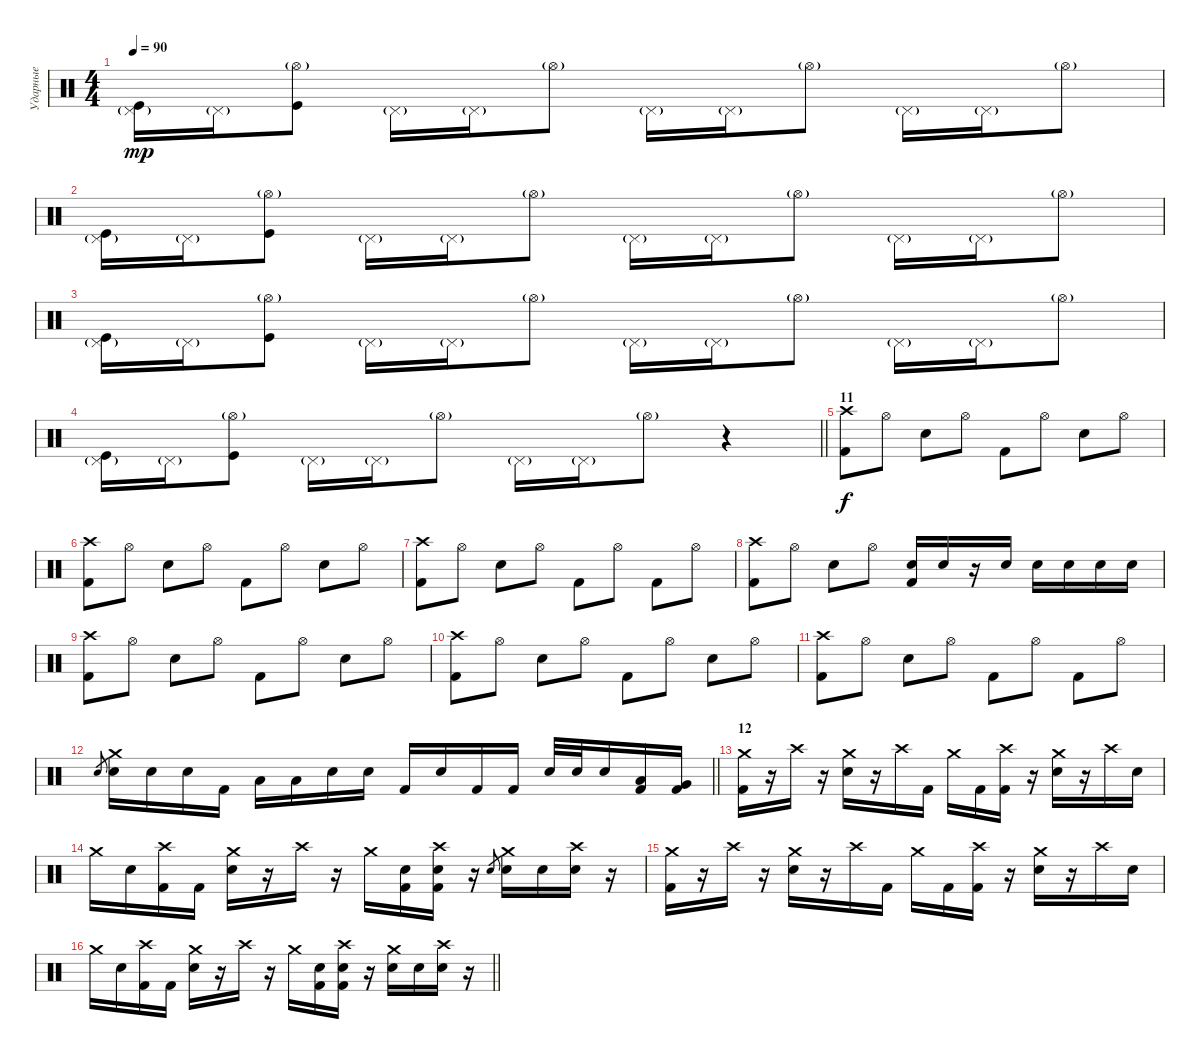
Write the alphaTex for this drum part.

\track ("Ударные" "Ударные") {instrument percussion}
\staff {score}
\articulation defaults
\ts (4 4)
\tempo 90
\clef neutral
\ks c
("Pedal Hi-Hat (hit)"{g} "Kick (hit)").16{dy mp} "Pedal Hi-Hat (hit)"{g}.16 ("Hi-Hat (open)"{g} "Kick (hit)").8 "Pedal Hi-Hat (hit)"{g}.16 "Pedal Hi-Hat (hit)"{g}.16 "Hi-Hat (open)"{g}.8 "Pedal Hi-Hat (hit)"{g}.16 "Pedal Hi-Hat (hit)"{g}.16 "Hi-Hat (open)"{g}.8 "Pedal Hi-Hat (hit)"{g}.16 "Pedal Hi-Hat (hit)"{g}.16 "Hi-Hat (open)"{g}.8 |
("Pedal Hi-Hat (hit)"{g} "Kick (hit)").16 "Pedal Hi-Hat (hit)"{g}.16 ("Hi-Hat (open)"{g} "Kick (hit)").8 "Pedal Hi-Hat (hit)"{g}.16 "Pedal Hi-Hat (hit)"{g}.16 "Hi-Hat (open)"{g}.8 "Pedal Hi-Hat (hit)"{g}.16 "Pedal Hi-Hat (hit)"{g}.16 "Hi-Hat (open)"{g}.8 "Pedal Hi-Hat (hit)"{g}.16 "Pedal Hi-Hat (hit)"{g}.16 "Hi-Hat (open)"{g}.8 |
("Pedal Hi-Hat (hit)"{g} "Kick (hit)").16 "Pedal Hi-Hat (hit)"{g}.16 ("Hi-Hat (open)"{g} "Kick (hit)").8 "Pedal Hi-Hat (hit)"{g}.16 "Pedal Hi-Hat (hit)"{g}.16 "Hi-Hat (open)"{g}.8 "Pedal Hi-Hat (hit)"{g}.16 "Pedal Hi-Hat (hit)"{g}.16 "Hi-Hat (open)"{g}.8 "Pedal Hi-Hat (hit)"{g}.16 "Pedal Hi-Hat (hit)"{g}.16 "Hi-Hat (open)"{g}.8 |
\barLineRight lightlight
("Pedal Hi-Hat (hit)"{g} "Kick (hit)").16 "Pedal Hi-Hat (hit)"{g}.16 ("Hi-Hat (open)"{g} "Kick (hit)").8 "Pedal Hi-Hat (hit)"{g}.16 "Pedal Hi-Hat (hit)"{g}.16 "Hi-Hat (open)"{g}.8 "Pedal Hi-Hat (hit)"{g}.16 "Pedal Hi-Hat (hit)"{g}.16 "Hi-Hat (open)"{g}.8 r.4 |
\section ("" "11")
("Crash high (hit)" "Kick (hit) 2").8{dy f} "Hi-Hat (open)".8 "Snare (hit) 2".8 "Hi-Hat (open)".8 "Kick (hit) 2".8 "Hi-Hat (open)".8 "Snare (hit) 2".8 "Hi-Hat (open)".8 |
("Crash high (hit)" "Kick (hit) 2").8 "Hi-Hat (open)".8 "Snare (hit) 2".8 "Hi-Hat (open)".8 "Kick (hit) 2".8 "Hi-Hat (open)".8 "Snare (hit) 2".8 "Hi-Hat (open)".8 |
("Crash high (hit)" "Kick (hit) 2").8 "Hi-Hat (open)".8 "Snare (hit) 2".8 "Hi-Hat (open)".8 "Kick (hit) 2".8 "Hi-Hat (open)".8 "Kick (hit) 2".8 "Hi-Hat (open)".8 |
("Crash high (hit)" "Kick (hit) 2").8 "Hi-Hat (open)".8 "Snare (hit) 2".8 "Hi-Hat (open)".8 ("Snare (hit) 2" "Kick (hit) 2").16 "Snare (hit) 2".16 r.16 "Snare (hit) 2".16 "Snare (hit) 2".16 "Snare (hit) 2".16 "Snare (hit) 2".16 "Snare (hit) 2".16 |
("Crash high (hit)" "Kick (hit) 2").8 "Hi-Hat (open)".8 "Snare (hit) 2".8 "Hi-Hat (open)".8 "Kick (hit) 2".8 "Hi-Hat (open)".8 "Snare (hit) 2".8 "Hi-Hat (open)".8 |
("Crash high (hit)" "Kick (hit) 2").8 "Hi-Hat (open)".8 "Snare (hit) 2".8 "Hi-Hat (open)".8 "Kick (hit) 2".8 "Hi-Hat (open)".8 "Snare (hit) 2".8 "Hi-Hat (open)".8 |
("Crash high (hit)" "Kick (hit) 2").8 "Hi-Hat (open)".8 "Snare (hit) 2".8 "Hi-Hat (open)".8 "Kick (hit) 2".8 "Hi-Hat (open)".8 "Kick (hit) 2".8 "Hi-Hat (open)".8 |
\barLineRight lightlight "Electric Snare (hit)".8{gr}
("Crash medium (hit)" "Electric Snare (hit)").16 "Electric Snare (hit)".16 "Electric Snare (hit)".16 "Kick (hit) 2".16 "Low Tom (hit)".16 "Low Tom (hit)".16 "Electric Snare (hit)".16 "Electric Snare (hit)".16 "Kick (hit) 2".16 "Electric Snare (hit)".16 "Kick (hit) 2".16 "Kick (hit) 2".16 "Electric Snare (hit)".32 "Electric Snare (hit)".32 "Electric Snare (hit)".16 ("Low Tom (hit)" "Kick (hit) 2").16 ("Very Low Tom (hit)" "Kick (hit) 2").16 |
\section ("" "12")
("Crash medium (hit)" "Kick (hit) 2").16 r.16 "Crash high (hit)".16 r.16 ("Crash medium (hit)" "Snare (hit) 2").16 r.16 "Crash high (hit)".16 "Kick (hit) 2".16 "Crash medium (hit)".16 "Kick (hit) 2".16 ("Crash high (hit)" "Kick (hit) 2").16 r.16 ("Crash medium (hit)" "Snare (hit) 2").16 r.16 "Crash high (hit)".16 "Snare (hit) 2".16 |
"Crash medium (hit)".16 "Snare (hit) 2".16 ("Crash high (hit)" "Kick (hit) 2").16 "Kick (hit) 2".16 ("Crash medium (hit)" "Snare (hit) 2").16 r.16 "Crash high (hit)".16 r.16 "Crash medium (hit)".16 ("Snare (hit) 2" "Kick (hit) 2").16 ("Crash high (hit)" "Snare (hit) 2" "Kick (hit) 2").16 r.16 "Snare (hit) 2".8{gr} ("Crash medium (hit)" "Snare (hit) 2").16 "Snare (hit) 2".16 ("Crash high (hit)" "Snare (hit) 2").16 r.16 |
("Crash medium (hit)" "Kick (hit) 2").16 r.16 "Crash high (hit)".16 r.16 ("Crash medium (hit)" "Snare (hit) 2").16 r.16 "Crash high (hit)".16 "Kick (hit) 2".16 "Crash medium (hit)".16 "Kick (hit) 2".16 ("Crash high (hit)" "Kick (hit) 2").16 r.16 ("Crash medium (hit)" "Snare (hit) 2").16 r.16 "Crash high (hit)".16 "Snare (hit) 2".16 |
\barLineRight lightlight "Crash medium (hit)".16 "Snare (hit) 2".16
("Crash high (hit)" "Kick (hit) 2").16 "Kick (hit) 2".16 ("Crash medium (hit)" "Snare (hit) 2").16 r.16 "Crash high (hit)".16 r.16 "Crash medium (hit)".16 ("Snare (hit) 2" "Kick (hit) 2").16 ("Crash high (hit)" "Snare (hit) 2" "Kick (hit) 2").16 r.16 ("Crash medium (hit)" "Snare (hit) 2").16 "Snare (hit) 2".16 ("Crash high (hit)" "Snare (hit) 2").16 r.16
